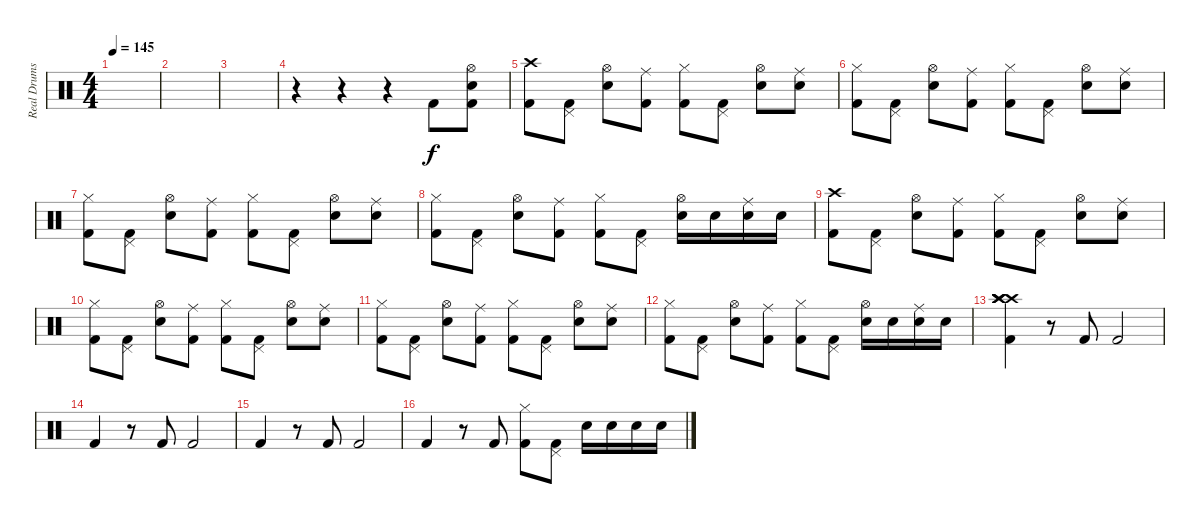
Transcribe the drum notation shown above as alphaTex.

\track ("Real Drums" "Real Drums") {instrument percussion}
\staff {score}
\articulation defaults
\ts (4 4)
\tempo 145
\clef neutral
\ks c
|
|
|
r.4 r.4 r.4 "Kick (hit) 2".8 ("Kick (hit) 2" "Electric Snare (hit)" "Hi-Hat (open)").8 |
("Kick (hit) 2" "Crash high (hit)").8 ("Kick (hit) 2" "Pedal Hi-Hat (hit)").8 ("Electric Snare (hit)" "Hi-Hat (open)").8 ("Kick (hit) 2" "Ride (middle)").8 ("Kick (hit) 2" "Hi-Hat (closed)").8 ("Kick (hit) 2" "Pedal Hi-Hat (hit)").8 ("Electric Snare (hit)" "Hi-Hat (open)").8 ("Electric Snare (hit)" "Ride (middle)").8 |
("Kick (hit) 2" "Hi-Hat (closed)").8 ("Kick (hit) 2" "Pedal Hi-Hat (hit)").8 ("Electric Snare (hit)" "Hi-Hat (open)").8 ("Kick (hit) 2" "Ride (middle)").8 ("Kick (hit) 2" "Hi-Hat (closed)").8 ("Kick (hit) 2" "Pedal Hi-Hat (hit)").8 ("Electric Snare (hit)" "Hi-Hat (open)").8 ("Electric Snare (hit)" "Ride (middle)").8 |
("Kick (hit) 2" "Hi-Hat (closed)").8 ("Kick (hit) 2" "Pedal Hi-Hat (hit)").8 ("Electric Snare (hit)" "Hi-Hat (open)").8 ("Kick (hit) 2" "Ride (middle)").8 ("Kick (hit) 2" "Hi-Hat (closed)").8 ("Kick (hit) 2" "Pedal Hi-Hat (hit)").8 ("Electric Snare (hit)" "Hi-Hat (open)").8 ("Electric Snare (hit)" "Ride (middle)").8 |
("Kick (hit) 2" "Hi-Hat (closed)").8 ("Kick (hit) 2" "Pedal Hi-Hat (hit)").8 ("Electric Snare (hit)" "Hi-Hat (open)").8 ("Kick (hit) 2" "Ride (middle)").8 ("Kick (hit) 2" "Hi-Hat (closed)").8 ("Kick (hit) 2" "Pedal Hi-Hat (hit)").8 ("Electric Snare (hit)" "Hi-Hat (open)").16 "Snare (hit) 2".16 ("Electric Snare (hit)" "Ride (middle)").16 "Snare (hit) 2".16 |
("Kick (hit) 2" "Crash high (hit)").8 ("Kick (hit) 2" "Pedal Hi-Hat (hit)").8 ("Electric Snare (hit)" "Hi-Hat (open)").8 ("Kick (hit) 2" "Ride (middle)").8 ("Kick (hit) 2" "Hi-Hat (closed)").8 ("Kick (hit) 2" "Pedal Hi-Hat (hit)").8 ("Electric Snare (hit)" "Hi-Hat (open)").8 ("Electric Snare (hit)" "Ride (middle)").8 |
("Kick (hit) 2" "Hi-Hat (closed)").8 ("Kick (hit) 2" "Pedal Hi-Hat (hit)").8 ("Electric Snare (hit)" "Hi-Hat (open)").8 ("Kick (hit) 2" "Ride (middle)").8 ("Kick (hit) 2" "Hi-Hat (closed)").8 ("Kick (hit) 2" "Pedal Hi-Hat (hit)").8 ("Electric Snare (hit)" "Hi-Hat (open)").8 ("Electric Snare (hit)" "Ride (middle)").8 |
("Kick (hit) 2" "Hi-Hat (closed)").8 ("Kick (hit) 2" "Pedal Hi-Hat (hit)").8 ("Electric Snare (hit)" "Hi-Hat (open)").8 ("Kick (hit) 2" "Ride (middle)").8 ("Kick (hit) 2" "Hi-Hat (closed)").8 ("Kick (hit) 2" "Pedal Hi-Hat (hit)").8 ("Electric Snare (hit)" "Hi-Hat (open)").8 ("Electric Snare (hit)" "Ride (middle)").8 |
("Kick (hit) 2" "Hi-Hat (closed)").8 ("Kick (hit) 2" "Pedal Hi-Hat (hit)").8 ("Electric Snare (hit)" "Hi-Hat (open)").8 ("Kick (hit) 2" "Ride (middle)").8 ("Kick (hit) 2" "Hi-Hat (closed)").8 ("Kick (hit) 2" "Pedal Hi-Hat (hit)").8 ("Electric Snare (hit)" "Hi-Hat (open)").16 "Snare (hit) 2".16 ("Electric Snare (hit)" "Ride (middle)").16 "Snare (hit) 2".16 |
("Kick (hit) 2" "Crash high (hit)" "Crash high (hit)" "Crash high (hit)" "Crash high (hit)").4 r.8 "Kick (hit) 2".8 "Kick (hit) 2".2 |
"Kick (hit) 2".4 r.8 "Kick (hit) 2".8 "Kick (hit) 2".2 |
"Kick (hit) 2".4 r.8 "Kick (hit) 2".8 "Kick (hit) 2".2 |
"Kick (hit) 2".4 r.8 "Kick (hit) 2".8 ("Kick (hit) 2" "Hi-Hat (closed)").8 ("Kick (hit) 2" "Pedal Hi-Hat (hit)").8 "Electric Snare (hit)".16 "Snare (hit) 2".16 "Electric Snare (hit)".16 "Snare (hit) 2".16
